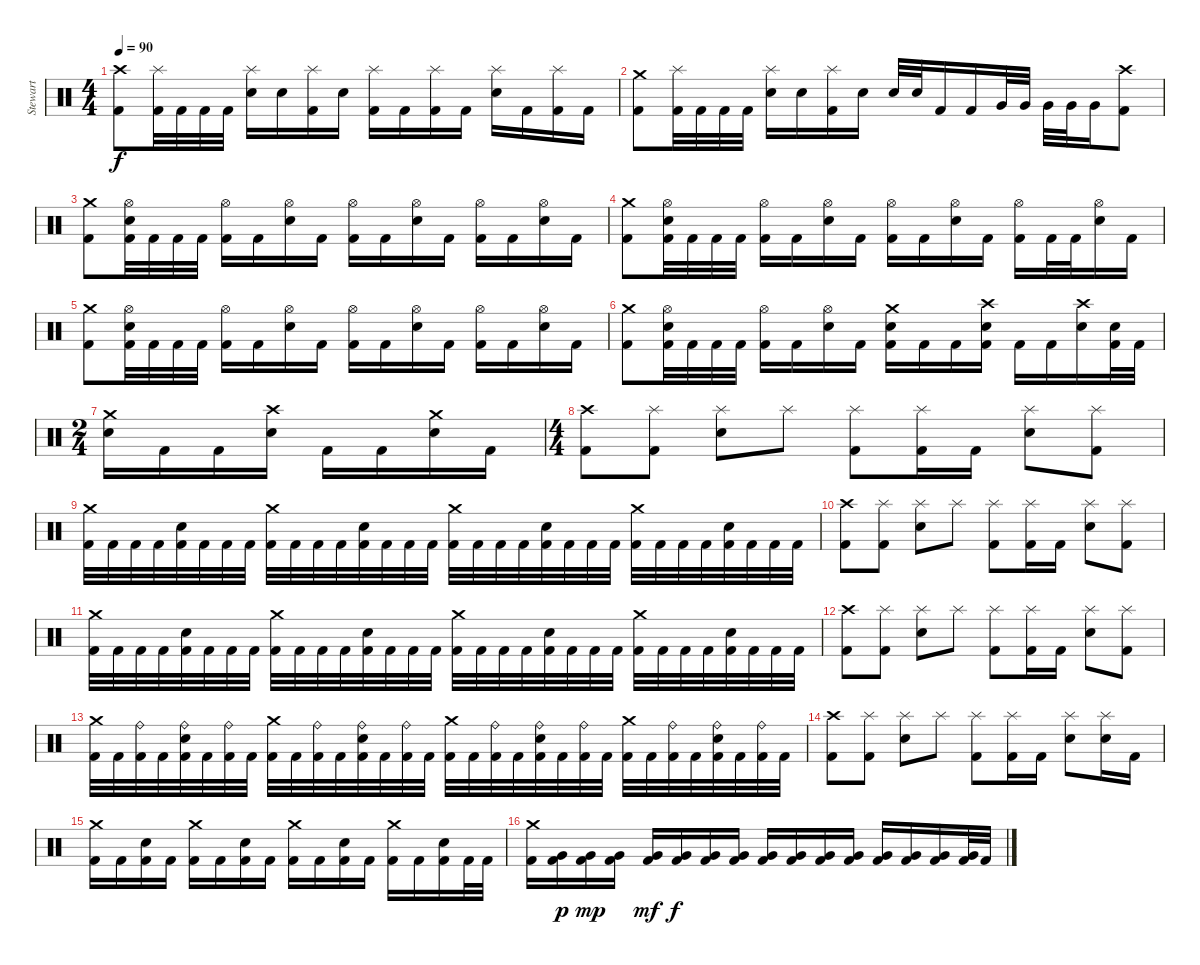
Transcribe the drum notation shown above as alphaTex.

\track ("Stewart" "Stewart") {instrument percussion}
\staff {score}
\articulation defaults
\ts (4 4)
\tempo 90
\clef neutral
\ks c
("Crash high (hit)" "Kick (hit) 2").8{dy f} ("Splash (hit)" "Kick (hit) 2").32 "Kick (hit) 2".32 "Kick (hit) 2".32 "Kick (hit) 2".32 ("Splash (hit)" "Electric Snare (hit)").16 "Electric Snare (hit)".16 ("Splash (hit)" "Kick (hit) 2").16 "Electric Snare (hit)".16 ("Splash (hit)" "Kick (hit) 2").16 "Kick (hit) 2".16 ("Splash (hit)" "Kick (hit) 2").16 "Kick (hit) 2".16 ("Splash (hit)" "Electric Snare (hit)").16 "Kick (hit) 2".16 ("Splash (hit)" "Kick (hit) 2").16 "Kick (hit) 2".16 |
("Crash medium (hit)" "Kick (hit) 2").8 ("Splash (hit)" "Kick (hit) 2").32 "Kick (hit) 2".32 "Kick (hit) 2".32 "Kick (hit) 2".32 ("Splash (hit)" "Electric Snare (hit)").16 "Electric Snare (hit)".16 ("Splash (hit)" "Kick (hit) 2").16 "Electric Snare (hit)".16 "Electric Snare (hit)".32 "Electric Snare (hit)".32 "Kick (hit) 2".16 "Kick (hit) 2".16 "Very Low Tom (hit)".32 "Very Low Tom (hit)".32 "Very Low Tom (hit)".32 "Very Low Tom (hit)".32 "Very Low Tom (hit)".16 ("Crash high (hit)" "Kick (hit) 2").8 |
("Crash medium (hit)" "Kick (hit) 2").8 ("Hi-Hat (open)" "Electric Snare (hit)" "Kick (hit) 2").32 "Kick (hit) 2".32 "Kick (hit) 2".32 "Kick (hit) 2".32 ("Hi-Hat (open)" "Kick (hit) 2").16 "Kick (hit) 2".16 ("Hi-Hat (open)" "Electric Snare (hit)").16 "Kick (hit) 2".16 ("Hi-Hat (open)" "Kick (hit) 2").16 "Kick (hit) 2".16 ("Hi-Hat (open)" "Electric Snare (hit)").16 "Kick (hit) 2".16 ("Hi-Hat (open)" "Kick (hit) 2").16 "Kick (hit) 2".16 ("Hi-Hat (open)" "Electric Snare (hit)").16 "Kick (hit) 2".16 |
("Crash medium (hit)" "Kick (hit) 2").8 ("Hi-Hat (open)" "Electric Snare (hit)" "Kick (hit) 2").32 "Kick (hit) 2".32 "Kick (hit) 2".32 "Kick (hit) 2".32 ("Hi-Hat (open)" "Kick (hit) 2").16 "Kick (hit) 2".16 ("Hi-Hat (open)" "Electric Snare (hit)").16 "Kick (hit) 2".16 ("Hi-Hat (open)" "Kick (hit) 2").16 "Kick (hit) 2".16 ("Hi-Hat (open)" "Electric Snare (hit)").16 "Kick (hit) 2".16 ("Hi-Hat (open)" "Kick (hit) 2").16 "Kick (hit) 2".32 "Kick (hit) 2".32 ("Hi-Hat (open)" "Electric Snare (hit)").16 "Kick (hit) 2".16 |
("Crash medium (hit)" "Kick (hit) 2").8 ("Hi-Hat (open)" "Electric Snare (hit)" "Kick (hit) 2").32 "Kick (hit) 2".32 "Kick (hit) 2".32 "Kick (hit) 2".32 ("Hi-Hat (open)" "Kick (hit) 2").16 "Kick (hit) 2".16 ("Hi-Hat (open)" "Electric Snare (hit)").16 "Kick (hit) 2".16 ("Hi-Hat (open)" "Kick (hit) 2").16 "Kick (hit) 2".16 ("Hi-Hat (open)" "Electric Snare (hit)").16 "Kick (hit) 2".16 ("Hi-Hat (open)" "Kick (hit) 2").16 "Kick (hit) 2".16 ("Hi-Hat (open)" "Electric Snare (hit)").16 "Kick (hit) 2".16 |
("Crash medium (hit)" "Kick (hit) 2").8 ("Hi-Hat (open)" "Electric Snare (hit)" "Kick (hit) 2").32 "Kick (hit) 2".32 "Kick (hit) 2".32 "Kick (hit) 2".32 ("Hi-Hat (open)" "Kick (hit) 2").16 "Kick (hit) 2".16 ("Hi-Hat (open)" "Electric Snare (hit)").16 "Kick (hit) 2".16 ("Crash medium (hit)" "Electric Snare (hit)" "Kick (hit) 2").16 "Kick (hit) 2".16 "Kick (hit) 2".16 ("Crash high (hit)" "Electric Snare (hit)" "Kick (hit) 2").16 "Kick (hit) 2".16 "Kick (hit) 2".16 ("Crash high (hit)" "Electric Snare (hit)").16 ("Electric Snare (hit)" "Kick (hit) 2").32 "Kick (hit) 2".32 |
\ts (2 4)
("Crash medium (hit)" "Electric Snare (hit)").16 "Kick (hit) 2".16 "Kick (hit) 2".16 ("Crash high (hit)" "Electric Snare (hit)").16 "Kick (hit) 2".16 "Kick (hit) 2".16 ("Crash medium (hit)" "Electric Snare (hit)").16 "Kick (hit) 2".16 |
\ts (4 4)
("Crash high (hit)" "Kick (hit) 2").8 ("Splash (hit)" "Kick (hit) 2").8 ("Splash (hit)" "Electric Snare (hit)").8 "Splash (hit)".8 ("Splash (hit)" "Kick (hit) 2").8 ("Splash (hit)" "Kick (hit) 2").16 "Kick (hit) 2".16 ("Splash (hit)" "Electric Snare (hit)").8 ("Splash (hit)" "Kick (hit) 2").8 |
("Crash medium (hit)" "Kick (hit) 2").32 "Kick (hit) 2".32 "Kick (hit) 2".32 "Kick (hit) 2".32 ("Electric Snare (hit)" "Kick (hit) 2").32 "Kick (hit) 2".32 "Kick (hit) 2".32 "Kick (hit) 2".32 ("Crash medium (hit)" "Kick (hit) 2").32 "Kick (hit) 2".32 "Kick (hit) 2".32 "Kick (hit) 2".32 ("Electric Snare (hit)" "Kick (hit) 2").32 "Kick (hit) 2".32 "Kick (hit) 2".32 "Kick (hit) 2".32 ("Crash medium (hit)" "Kick (hit) 2").32 "Kick (hit) 2".32 "Kick (hit) 2".32 "Kick (hit) 2".32 ("Electric Snare (hit)" "Kick (hit) 2").32 "Kick (hit) 2".32 "Kick (hit) 2".32 "Kick (hit) 2".32 ("Crash medium (hit)" "Kick (hit) 2").32 "Kick (hit) 2".32 "Kick (hit) 2".32 "Kick (hit) 2".32 ("Electric Snare (hit)" "Kick (hit) 2").32 "Kick (hit) 2".32 "Kick (hit) 2".32 "Kick (hit) 2".32 |
("Crash high (hit)" "Kick (hit) 2").8 ("Splash (hit)" "Kick (hit) 2").8 ("Splash (hit)" "Electric Snare (hit)").8 "Splash (hit)".8 ("Splash (hit)" "Kick (hit) 2").8 ("Splash (hit)" "Kick (hit) 2").16 "Kick (hit) 2".16 ("Splash (hit)" "Electric Snare (hit)").8 ("Splash (hit)" "Kick (hit) 2").8 |
("Crash medium (hit)" "Kick (hit) 2").32 "Kick (hit) 2".32 "Kick (hit) 2".32 "Kick (hit) 2".32 ("Electric Snare (hit)" "Kick (hit) 2").32 "Kick (hit) 2".32 "Kick (hit) 2".32 "Kick (hit) 2".32 ("Crash medium (hit)" "Kick (hit) 2").32 "Kick (hit) 2".32 "Kick (hit) 2".32 "Kick (hit) 2".32 ("Electric Snare (hit)" "Kick (hit) 2").32 "Kick (hit) 2".32 "Kick (hit) 2".32 "Kick (hit) 2".32 ("Crash medium (hit)" "Kick (hit) 2").32 "Kick (hit) 2".32 "Kick (hit) 2".32 "Kick (hit) 2".32 ("Electric Snare (hit)" "Kick (hit) 2").32 "Kick (hit) 2".32 "Kick (hit) 2".32 "Kick (hit) 2".32 ("Crash medium (hit)" "Kick (hit) 2").32 "Kick (hit) 2".32 "Kick (hit) 2".32 "Kick (hit) 2".32 ("Electric Snare (hit)" "Kick (hit) 2").32 "Kick (hit) 2".32 "Kick (hit) 2".32 "Kick (hit) 2".32 |
("Crash high (hit)" "Kick (hit) 2").8 ("Splash (hit)" "Kick (hit) 2").8 ("Splash (hit)" "Electric Snare (hit)").8 "Splash (hit)".8 ("Splash (hit)" "Kick (hit) 2").8 ("Splash (hit)" "Kick (hit) 2").16 "Kick (hit) 2".16 ("Splash (hit)" "Electric Snare (hit)").8 ("Splash (hit)" "Kick (hit) 2").8 |
("Crash medium (hit)" "Kick (hit) 2").32 "Kick (hit) 2".32 ("Ride (bell)" "Kick (hit) 2").32 "Kick (hit) 2".32 ("Ride (bell)" "Electric Snare (hit)" "Kick (hit) 2").32 "Kick (hit) 2".32 ("Ride (bell)" "Kick (hit) 2").32 "Kick (hit) 2".32 ("Crash medium (hit)" "Kick (hit) 2").32 "Kick (hit) 2".32 ("Ride (bell)" "Kick (hit) 2").32 "Kick (hit) 2".32 ("Ride (bell)" "Electric Snare (hit)" "Kick (hit) 2").32 "Kick (hit) 2".32 ("Ride (bell)" "Kick (hit) 2").32 "Kick (hit) 2".32 ("Crash medium (hit)" "Kick (hit) 2").32 "Kick (hit) 2".32 ("Ride (bell)" "Kick (hit) 2").32 "Kick (hit) 2".32 ("Ride (bell)" "Electric Snare (hit)" "Kick (hit) 2").32 "Kick (hit) 2".32 ("Ride (bell)" "Kick (hit) 2").32 "Kick (hit) 2".32 ("Crash medium (hit)" "Kick (hit) 2").32 "Kick (hit) 2".32 ("Ride (bell)" "Kick (hit) 2").32 "Kick (hit) 2".32 ("Ride (bell)" "Electric Snare (hit)" "Kick (hit) 2").32 "Kick (hit) 2".32 ("Ride (bell)" "Kick (hit) 2").32 "Kick (hit) 2".32 |
("Crash high (hit)" "Kick (hit) 2").8 ("Splash (hit)" "Kick (hit) 2").8 ("Splash (hit)" "Electric Snare (hit)").8 "Splash (hit)".8 ("Splash (hit)" "Kick (hit) 2").8 ("Splash (hit)" "Kick (hit) 2").16 "Kick (hit) 2".16 ("Splash (hit)" "Electric Snare (hit)").8 ("Splash (hit)" "Electric Snare (hit)").16 "Kick (hit) 2".16 |
("Crash medium (hit)" "Kick (hit) 2").16 "Kick (hit) 2".16 ("Electric Snare (hit)" "Kick (hit) 2").16 "Kick (hit) 2".16 ("Crash medium (hit)" "Kick (hit) 2").16 "Kick (hit) 2".16 ("Electric Snare (hit)" "Kick (hit) 2").16 "Kick (hit) 2".16 ("Crash medium (hit)" "Kick (hit) 2").16 "Kick (hit) 2".16 ("Electric Snare (hit)" "Kick (hit) 2").16 "Kick (hit) 2".16 ("Crash medium (hit)" "Kick (hit) 2").16 "Kick (hit) 2".16 ("Electric Snare (hit)" "Kick (hit) 2").16 "Kick (hit) 2".32 "Kick (hit) 2".32 |
("Crash medium (hit)" "Kick (hit) 2").16 ("Very Low Tom (hit)" "Kick (hit) 2").16{dy p} ("Very Low Tom (hit)" "Kick (hit) 2").16{dy mp} ("Very Low Tom (hit)" "Kick (hit) 2").16 ("Very Low Tom (hit)" "Kick (hit) 2").16{dy mf} ("Very Low Tom (hit)" "Kick (hit) 2").16{dy f} ("Very Low Tom (hit)" "Kick (hit) 2").16 ("Very Low Tom (hit)" "Kick (hit) 2").16 ("Very Low Tom (hit)" "Kick (hit) 2").16 ("Very Low Tom (hit)" "Kick (hit) 2").16 ("Very Low Tom (hit)" "Kick (hit) 2").16 ("Very Low Tom (hit)" "Kick (hit) 2").16 ("Very Low Tom (hit)" "Kick (hit) 2").16 ("Very Low Tom (hit)" "Kick (hit) 2").16 ("Very Low Tom (hit)" "Kick (hit) 2").16 ("Very Low Tom (hit)" "Kick (hit) 2").32 "Kick (hit) 2".32
